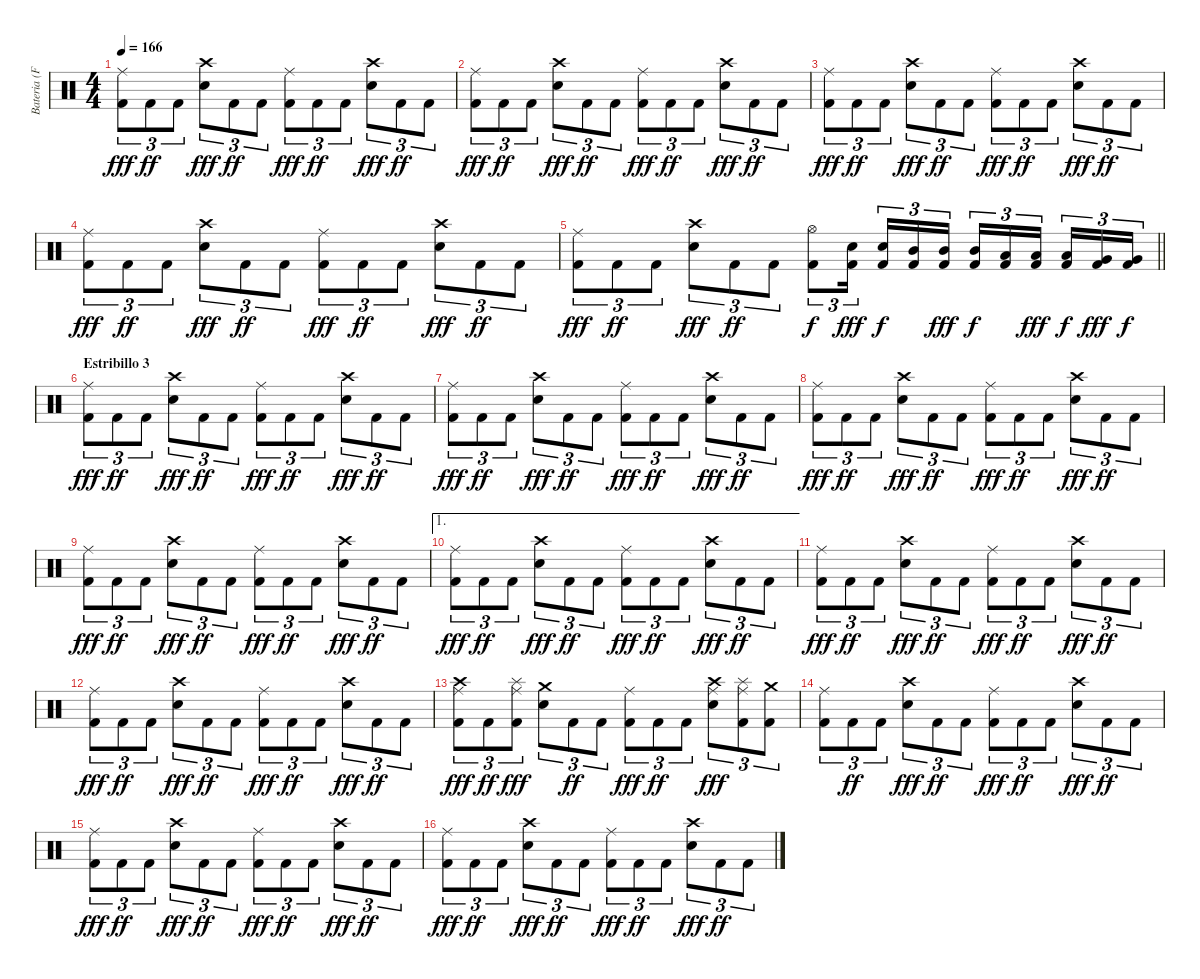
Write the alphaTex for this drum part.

\track ("Bateria (Fernando Scarcella)" "Bateria (F") {instrument percussion}
\staff {score}
\articulation defaults
\ts (4 4)
\tempo 166
\clef neutral
\ks c
("Kick (hit) 2" "Ride (middle)").8{tu (3 2) dy fff} "Kick (hit) 2".8{tu (3 2) dy ff} "Kick (hit) 2".8{tu (3 2)} ("Electric Snare (hit)" "Crash high (hit)").8{tu (3 2) dy fff} "Kick (hit) 2".8{tu (3 2) dy ff} "Kick (hit) 2".8{tu (3 2)} ("Kick (hit) 2" "Ride (middle)").8{tu (3 2) dy fff} "Kick (hit) 2".8{tu (3 2) dy ff} "Kick (hit) 2".8{tu (3 2)} ("Electric Snare (hit)" "Crash high (hit)").8{tu (3 2) dy fff} "Kick (hit) 2".8{tu (3 2) dy ff} "Kick (hit) 2".8{tu (3 2)} |
("Kick (hit) 2" "Ride (middle)").8{tu (3 2) dy fff} "Kick (hit) 2".8{tu (3 2) dy ff} "Kick (hit) 2".8{tu (3 2)} ("Electric Snare (hit)" "Crash high (hit)").8{tu (3 2) dy fff} "Kick (hit) 2".8{tu (3 2) dy ff} "Kick (hit) 2".8{tu (3 2)} ("Kick (hit) 2" "Ride (middle)").8{tu (3 2) dy fff} "Kick (hit) 2".8{tu (3 2) dy ff} "Kick (hit) 2".8{tu (3 2)} ("Electric Snare (hit)" "Crash high (hit)").8{tu (3 2) dy fff} "Kick (hit) 2".8{tu (3 2) dy ff} "Kick (hit) 2".8{tu (3 2)} |
("Kick (hit) 2" "Ride (middle)").8{tu (3 2) dy fff} "Kick (hit) 2".8{tu (3 2) dy ff} "Kick (hit) 2".8{tu (3 2)} ("Electric Snare (hit)" "Crash high (hit)").8{tu (3 2) dy fff} "Kick (hit) 2".8{tu (3 2) dy ff} "Kick (hit) 2".8{tu (3 2)} ("Kick (hit) 2" "Ride (middle)").8{tu (3 2) dy fff} "Kick (hit) 2".8{tu (3 2) dy ff} "Kick (hit) 2".8{tu (3 2)} ("Electric Snare (hit)" "Crash high (hit)").8{tu (3 2) dy fff} "Kick (hit) 2".8{tu (3 2) dy ff} "Kick (hit) 2".8{tu (3 2)} |
("Kick (hit) 2" "Ride (middle)").8{tu (3 2) dy fff} "Kick (hit) 2".8{tu (3 2) dy ff} "Kick (hit) 2".8{tu (3 2)} ("Electric Snare (hit)" "Crash high (hit)").8{tu (3 2) dy fff} "Kick (hit) 2".8{tu (3 2) dy ff} "Kick (hit) 2".8{tu (3 2)} ("Kick (hit) 2" "Ride (middle)").8{tu (3 2) dy fff} "Kick (hit) 2".8{tu (3 2) dy ff} "Kick (hit) 2".8{tu (3 2)} ("Electric Snare (hit)" "Crash high (hit)").8{tu (3 2) dy fff} "Kick (hit) 2".8{tu (3 2) dy ff} "Kick (hit) 2".8{tu (3 2)} |
\barLineRight lightlight
("Kick (hit) 2" "Ride (middle)").8{tu (3 2) dy fff} "Kick (hit) 2".8{tu (3 2) dy ff} "Kick (hit) 2".8{tu (3 2)} ("Electric Snare (hit)" "Crash high (hit)").8{tu (3 2) dy fff} "Kick (hit) 2".8{tu (3 2) dy ff} "Kick (hit) 2".8{tu (3 2)} ("Hi-Hat (open)" "Kick (hit) 2").8{tu (3 2) dy f} ("Snare (hit) 2" "Kick (hit) 2").16{tu (3 2) dy fff beam splitsecondary} ("Snare (hit) 2" "Kick (hit) 2").16{tu (3 2) dy f} ("Mid Tom (hit)" "Kick (hit) 2").16{tu (3 2)} ("Mid Tom (hit)" "Kick (hit) 2").16{tu (3 2) dy fff} ("Mid Tom (hit)" "Kick (hit) 2").16{tu (3 2) dy f} ("Low Tom (hit)" "Kick (hit) 2").16{tu (3 2)} ("Low Tom (hit)" "Kick (hit) 2").16{tu (3 2) dy fff beam splitsecondary} ("Low Tom (hit)" "Kick (hit) 2").16{tu (3 2) dy f} ("Very Low Tom (hit)" "Kick (hit) 2").16{tu (3 2) dy fff} ("Very Low Tom (hit)" "Kick (hit) 2").16{tu (3 2) dy f} |
\section ("" "Estribillo 3")
("Kick (hit) 2" "Ride (middle)").8{tu (3 2) dy fff} "Kick (hit) 2".8{tu (3 2) dy ff} "Kick (hit) 2".8{tu (3 2)} ("Electric Snare (hit)" "Crash high (hit)").8{tu (3 2) dy fff} "Kick (hit) 2".8{tu (3 2) dy ff} "Kick (hit) 2".8{tu (3 2)} ("Kick (hit) 2" "Ride (middle)").8{tu (3 2) dy fff} "Kick (hit) 2".8{tu (3 2) dy ff} "Kick (hit) 2".8{tu (3 2)} ("Electric Snare (hit)" "Crash high (hit)").8{tu (3 2) dy fff} "Kick (hit) 2".8{tu (3 2) dy ff} "Kick (hit) 2".8{tu (3 2)} |
("Kick (hit) 2" "Ride (middle)").8{tu (3 2) dy fff} "Kick (hit) 2".8{tu (3 2) dy ff} "Kick (hit) 2".8{tu (3 2)} ("Electric Snare (hit)" "Crash high (hit)").8{tu (3 2) dy fff} "Kick (hit) 2".8{tu (3 2) dy ff} "Kick (hit) 2".8{tu (3 2)} ("Kick (hit) 2" "Ride (middle)").8{tu (3 2) dy fff} "Kick (hit) 2".8{tu (3 2) dy ff} "Kick (hit) 2".8{tu (3 2)} ("Electric Snare (hit)" "Crash high (hit)").8{tu (3 2) dy fff} "Kick (hit) 2".8{tu (3 2) dy ff} "Kick (hit) 2".8{tu (3 2)} |
("Kick (hit) 2" "Ride (middle)").8{tu (3 2) dy fff} "Kick (hit) 2".8{tu (3 2) dy ff} "Kick (hit) 2".8{tu (3 2)} ("Electric Snare (hit)" "Crash high (hit)").8{tu (3 2) dy fff} "Kick (hit) 2".8{tu (3 2) dy ff} "Kick (hit) 2".8{tu (3 2)} ("Kick (hit) 2" "Ride (middle)").8{tu (3 2) dy fff} "Kick (hit) 2".8{tu (3 2) dy ff} "Kick (hit) 2".8{tu (3 2)} ("Electric Snare (hit)" "Crash high (hit)").8{tu (3 2) dy fff} "Kick (hit) 2".8{tu (3 2) dy ff} "Kick (hit) 2".8{tu (3 2)} |
("Kick (hit) 2" "Ride (middle)").8{tu (3 2) dy fff} "Kick (hit) 2".8{tu (3 2) dy ff} "Kick (hit) 2".8{tu (3 2)} ("Electric Snare (hit)" "Crash high (hit)").8{tu (3 2) dy fff} "Kick (hit) 2".8{tu (3 2) dy ff} "Kick (hit) 2".8{tu (3 2)} ("Kick (hit) 2" "Ride (middle)").8{tu (3 2) dy fff} "Kick (hit) 2".8{tu (3 2) dy ff} "Kick (hit) 2".8{tu (3 2)} ("Electric Snare (hit)" "Crash high (hit)").8{tu (3 2) dy fff} "Kick (hit) 2".8{tu (3 2) dy ff} "Kick (hit) 2".8{tu (3 2)} |
\ae 1
("Kick (hit) 2" "Ride (middle)").8{tu (3 2) dy fff} "Kick (hit) 2".8{tu (3 2) dy ff} "Kick (hit) 2".8{tu (3 2)} ("Electric Snare (hit)" "Crash high (hit)").8{tu (3 2) dy fff} "Kick (hit) 2".8{tu (3 2) dy ff} "Kick (hit) 2".8{tu (3 2)} ("Kick (hit) 2" "Ride (middle)").8{tu (3 2) dy fff} "Kick (hit) 2".8{tu (3 2) dy ff} "Kick (hit) 2".8{tu (3 2)} ("Electric Snare (hit)" "Crash high (hit)").8{tu (3 2) dy fff} "Kick (hit) 2".8{tu (3 2) dy ff} "Kick (hit) 2".8{tu (3 2)} |
("Kick (hit) 2" "Ride (middle)").8{tu (3 2) dy fff} "Kick (hit) 2".8{tu (3 2) dy ff} "Kick (hit) 2".8{tu (3 2)} ("Electric Snare (hit)" "Crash high (hit)").8{tu (3 2) dy fff} "Kick (hit) 2".8{tu (3 2) dy ff} "Kick (hit) 2".8{tu (3 2)} ("Kick (hit) 2" "Ride (middle)").8{tu (3 2) dy fff} "Kick (hit) 2".8{tu (3 2) dy ff} "Kick (hit) 2".8{tu (3 2)} ("Electric Snare (hit)" "Crash high (hit)").8{tu (3 2) dy fff} "Kick (hit) 2".8{tu (3 2) dy ff} "Kick (hit) 2".8{tu (3 2)} |
("Kick (hit) 2" "Ride (middle)").8{tu (3 2) dy fff} "Kick (hit) 2".8{tu (3 2) dy ff} "Kick (hit) 2".8{tu (3 2)} ("Electric Snare (hit)" "Crash high (hit)").8{tu (3 2) dy fff} "Kick (hit) 2".8{tu (3 2) dy ff} "Kick (hit) 2".8{tu (3 2)} ("Kick (hit) 2" "Ride (middle)").8{tu (3 2) dy fff} "Kick (hit) 2".8{tu (3 2) dy ff} "Kick (hit) 2".8{tu (3 2)} ("Electric Snare (hit)" "Crash high (hit)").8{tu (3 2) dy fff} "Kick (hit) 2".8{tu (3 2) dy ff} "Kick (hit) 2".8{tu (3 2)} |
("Kick (hit) 2" "Ride (middle)" "Crash high (hit)").8{tu (3 2) dy fff} "Kick (hit) 2".8{tu (3 2) dy ff} ("Kick (hit) 2" "Ride (middle)" "Splash (hit)").8{tu (3 2) dy fff} ("Electric Snare (hit)" "Crash medium (hit)").8{tu (3 2)} "Kick (hit) 2".8{tu (3 2) dy ff} "Kick (hit) 2".8{tu (3 2)} ("Kick (hit) 2" "Ride (middle)").8{tu (3 2) dy fff} "Kick (hit) 2".8{tu (3 2) dy ff} "Kick (hit) 2".8{tu (3 2)} ("Electric Snare (hit)" "Ride (middle)" "Crash high (hit)").8{tu (3 2) dy fff} ("Kick (hit) 2" "Ride (middle)" "Splash (hit)").8{tu (3 2)} ("Kick (hit) 2" "Crash medium (hit)").8{tu (3 2)} |
("Kick (hit) 2" "Ride (middle)").8{tu (3 2)} "Kick (hit) 2".8{tu (3 2) dy ff} "Kick (hit) 2".8{tu (3 2)} ("Electric Snare (hit)" "Crash high (hit)").8{tu (3 2) dy fff} "Kick (hit) 2".8{tu (3 2) dy ff} "Kick (hit) 2".8{tu (3 2)} ("Kick (hit) 2" "Ride (middle)").8{tu (3 2) dy fff} "Kick (hit) 2".8{tu (3 2) dy ff} "Kick (hit) 2".8{tu (3 2)} ("Electric Snare (hit)" "Crash high (hit)").8{tu (3 2) dy fff} "Kick (hit) 2".8{tu (3 2) dy ff} "Kick (hit) 2".8{tu (3 2)} |
("Kick (hit) 2" "Ride (middle)").8{tu (3 2) dy fff} "Kick (hit) 2".8{tu (3 2) dy ff} "Kick (hit) 2".8{tu (3 2)} ("Electric Snare (hit)" "Crash high (hit)").8{tu (3 2) dy fff} "Kick (hit) 2".8{tu (3 2) dy ff} "Kick (hit) 2".8{tu (3 2)} ("Kick (hit) 2" "Ride (middle)").8{tu (3 2) dy fff} "Kick (hit) 2".8{tu (3 2) dy ff} "Kick (hit) 2".8{tu (3 2)} ("Electric Snare (hit)" "Crash high (hit)").8{tu (3 2) dy fff} "Kick (hit) 2".8{tu (3 2) dy ff} "Kick (hit) 2".8{tu (3 2)} |
("Kick (hit) 2" "Ride (middle)").8{tu (3 2) dy fff} "Kick (hit) 2".8{tu (3 2) dy ff} "Kick (hit) 2".8{tu (3 2)} ("Electric Snare (hit)" "Crash high (hit)").8{tu (3 2) dy fff} "Kick (hit) 2".8{tu (3 2) dy ff} "Kick (hit) 2".8{tu (3 2)} ("Kick (hit) 2" "Ride (middle)").8{tu (3 2) dy fff} "Kick (hit) 2".8{tu (3 2) dy ff} "Kick (hit) 2".8{tu (3 2)} ("Electric Snare (hit)" "Crash high (hit)").8{tu (3 2) dy fff} "Kick (hit) 2".8{tu (3 2) dy ff} "Kick (hit) 2".8{tu (3 2)}
